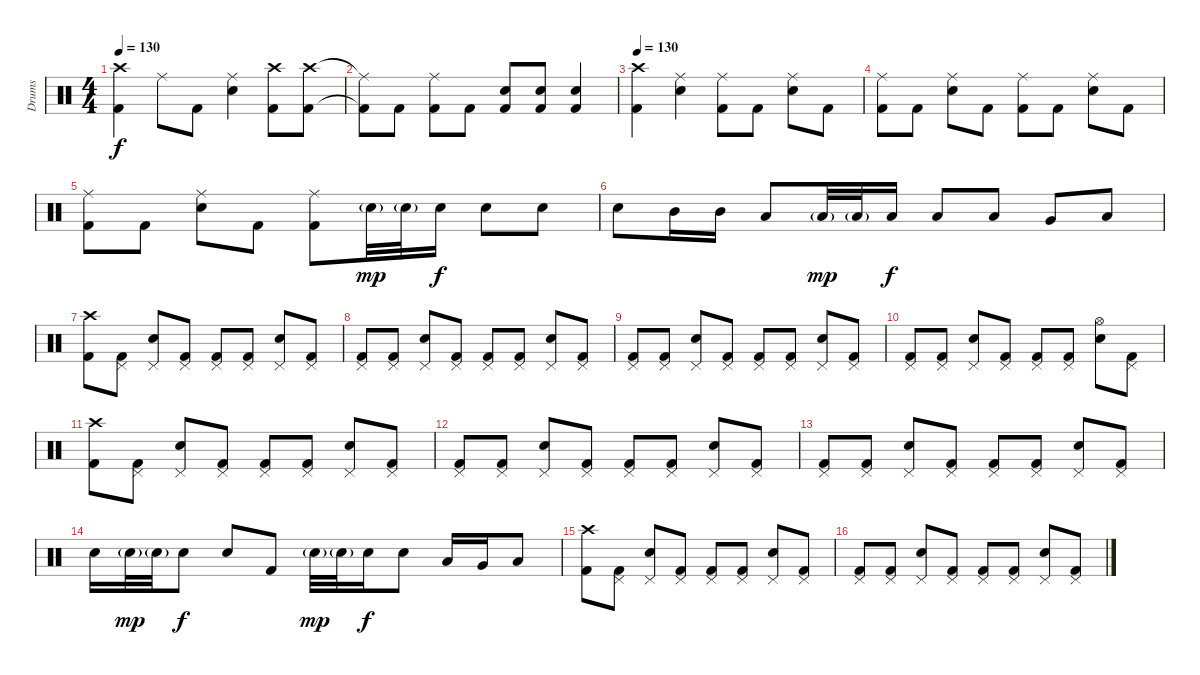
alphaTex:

\track ("Drums" "Drums") {instrument percussion}
\staff {score}
\articulation defaults
\ts (4 4)
\tempo 130
\clef neutral
\ks c
("Crash high (hit)" "Kick (hit) 2").4{dy f} "Ride (middle)".8 "Kick (hit) 2".8 ("Ride (middle)" "Electric Snare (hit)").4 ("Crash high (hit)" "Kick (hit) 2").8 ("Crash high (hit)" "Kick (hit) 2").8 |
("Ride (middle)"{t} "Kick (hit) 2"{t}).8 "Kick (hit) 2".8 ("Ride (middle)" "Kick (hit) 2").8 "Kick (hit) 2".8 ("Electric Snare (hit)" "Kick (hit) 2").8 ("Electric Snare (hit)" "Kick (hit) 2").8 ("Electric Snare (hit)" "Kick (hit) 2").4 |
\tempo 130
("Crash high (hit)" "Kick (hit) 2").4 ("Ride (middle)" "Electric Snare (hit)").4 ("Ride (middle)" "Kick (hit) 2").8 "Kick (hit) 2".8 ("Ride (middle)" "Electric Snare (hit)").8 "Kick (hit) 2".8 |
("Ride (middle)" "Kick (hit) 2").8 "Kick (hit) 2".8 ("Ride (middle)" "Electric Snare (hit)").8 "Kick (hit) 2".8 ("Ride (middle)" "Kick (hit) 2").8 "Kick (hit) 2".8 ("Ride (middle)" "Electric Snare (hit)").8 "Kick (hit) 2".8 |
("Ride (middle)" "Kick (hit) 2").8 "Kick (hit) 2".8 ("Ride (middle)" "Electric Snare (hit)").8 "Kick (hit) 2".8 ("Ride (middle)" "Kick (hit) 2").8 "Electric Snare (hit)"{g}.32{dy mp} "Electric Snare (hit)"{g}.32 "Electric Snare (hit)".16{dy f} "Electric Snare (hit)".8 "Electric Snare (hit)".8 |
"Electric Snare (hit)".8 "Mid Tom (hit)".16 "Mid Tom (hit)".16 "Low Tom (hit)".8 "Low Tom (hit)"{g}.32{dy mp} "Low Tom (hit)"{g}.32 "Low Tom (hit)".16{dy f} "Low Tom (hit)".8 "Low Tom (hit)".8 "Very Low Tom (hit)".8 "Low Floor Tom (hit)".8 |
("Crash high (hit)" "Kick (hit) 2").8 ("Pedal Hi-Hat (hit)" "Kick (hit) 2").8 ("Pedal Hi-Hat (hit)" "Electric Snare (hit)").8 ("Pedal Hi-Hat (hit)" "Kick (hit) 2").8 ("Pedal Hi-Hat (hit)" "Kick (hit) 2").8 ("Pedal Hi-Hat (hit)" "Kick (hit) 2").8 ("Pedal Hi-Hat (hit)" "Electric Snare (hit)").8 ("Pedal Hi-Hat (hit)" "Kick (hit) 2").8 |
("Pedal Hi-Hat (hit)" "Kick (hit) 2").8 ("Pedal Hi-Hat (hit)" "Kick (hit) 2").8 ("Pedal Hi-Hat (hit)" "Electric Snare (hit)").8 ("Pedal Hi-Hat (hit)" "Kick (hit) 2").8 ("Pedal Hi-Hat (hit)" "Kick (hit) 2").8 ("Pedal Hi-Hat (hit)" "Kick (hit) 2").8 ("Pedal Hi-Hat (hit)" "Electric Snare (hit)").8 ("Pedal Hi-Hat (hit)" "Kick (hit) 2").8 |
("Pedal Hi-Hat (hit)" "Kick (hit) 2").8 ("Pedal Hi-Hat (hit)" "Kick (hit) 2").8 ("Pedal Hi-Hat (hit)" "Electric Snare (hit)").8 ("Pedal Hi-Hat (hit)" "Kick (hit) 2").8 ("Pedal Hi-Hat (hit)" "Kick (hit) 2").8 ("Pedal Hi-Hat (hit)" "Kick (hit) 2").8 ("Pedal Hi-Hat (hit)" "Electric Snare (hit)").8 ("Pedal Hi-Hat (hit)" "Kick (hit) 2").8 |
("Pedal Hi-Hat (hit)" "Kick (hit) 2").8 ("Pedal Hi-Hat (hit)" "Kick (hit) 2").8 ("Pedal Hi-Hat (hit)" "Electric Snare (hit)").8 ("Pedal Hi-Hat (hit)" "Kick (hit) 2").8 ("Pedal Hi-Hat (hit)" "Kick (hit) 2").8 ("Pedal Hi-Hat (hit)" "Kick (hit) 2").8 ("Hi-Hat (open)" "Electric Snare (hit)").8 ("Pedal Hi-Hat (hit)" "Kick (hit) 2").8 |
("Crash high (hit)" "Kick (hit) 2").8 ("Pedal Hi-Hat (hit)" "Kick (hit) 2").8 ("Pedal Hi-Hat (hit)" "Electric Snare (hit)").8 ("Pedal Hi-Hat (hit)" "Kick (hit) 2").8 ("Pedal Hi-Hat (hit)" "Kick (hit) 2").8 ("Pedal Hi-Hat (hit)" "Kick (hit) 2").8 ("Pedal Hi-Hat (hit)" "Electric Snare (hit)").8 ("Pedal Hi-Hat (hit)" "Kick (hit) 2").8 |
("Pedal Hi-Hat (hit)" "Kick (hit) 2").8 ("Pedal Hi-Hat (hit)" "Kick (hit) 2").8 ("Pedal Hi-Hat (hit)" "Electric Snare (hit)").8 ("Pedal Hi-Hat (hit)" "Kick (hit) 2").8 ("Pedal Hi-Hat (hit)" "Kick (hit) 2").8 ("Pedal Hi-Hat (hit)" "Kick (hit) 2").8 ("Pedal Hi-Hat (hit)" "Electric Snare (hit)").8 ("Pedal Hi-Hat (hit)" "Kick (hit) 2").8 |
("Pedal Hi-Hat (hit)" "Kick (hit) 2").8 ("Pedal Hi-Hat (hit)" "Kick (hit) 2").8 ("Pedal Hi-Hat (hit)" "Electric Snare (hit)").8 ("Pedal Hi-Hat (hit)" "Kick (hit) 2").8 ("Pedal Hi-Hat (hit)" "Kick (hit) 2").8 ("Pedal Hi-Hat (hit)" "Kick (hit) 2").8 ("Pedal Hi-Hat (hit)" "Electric Snare (hit)").8 ("Pedal Hi-Hat (hit)" "Kick (hit) 2").8 |
"Electric Snare (hit)".16 "Electric Snare (hit)"{g}.32{dy mp} "Electric Snare (hit)"{g}.32 "Electric Snare (hit)".8{dy f} "Electric Snare (hit)".8 "Kick (hit) 2".8 "Electric Snare (hit)"{g}.32{dy mp} "Electric Snare (hit)"{g}.32 "Electric Snare (hit)".16{dy f} "Electric Snare (hit)".8 "Low Tom (hit)".16 "Very Low Tom (hit)".16 "Low Floor Tom (hit)".8 |
("Crash high (hit)" "Kick (hit) 2").8 ("Pedal Hi-Hat (hit)" "Kick (hit) 2").8 ("Pedal Hi-Hat (hit)" "Electric Snare (hit)").8 ("Pedal Hi-Hat (hit)" "Kick (hit) 2").8 ("Pedal Hi-Hat (hit)" "Kick (hit) 2").8 ("Pedal Hi-Hat (hit)" "Kick (hit) 2").8 ("Pedal Hi-Hat (hit)" "Electric Snare (hit)").8 ("Pedal Hi-Hat (hit)" "Kick (hit) 2").8 |
("Pedal Hi-Hat (hit)" "Kick (hit) 2").8 ("Pedal Hi-Hat (hit)" "Kick (hit) 2").8 ("Pedal Hi-Hat (hit)" "Electric Snare (hit)").8 ("Pedal Hi-Hat (hit)" "Kick (hit) 2").8 ("Pedal Hi-Hat (hit)" "Kick (hit) 2").8 ("Pedal Hi-Hat (hit)" "Kick (hit) 2").8 ("Pedal Hi-Hat (hit)" "Electric Snare (hit)").8 ("Pedal Hi-Hat (hit)" "Kick (hit) 2").8
